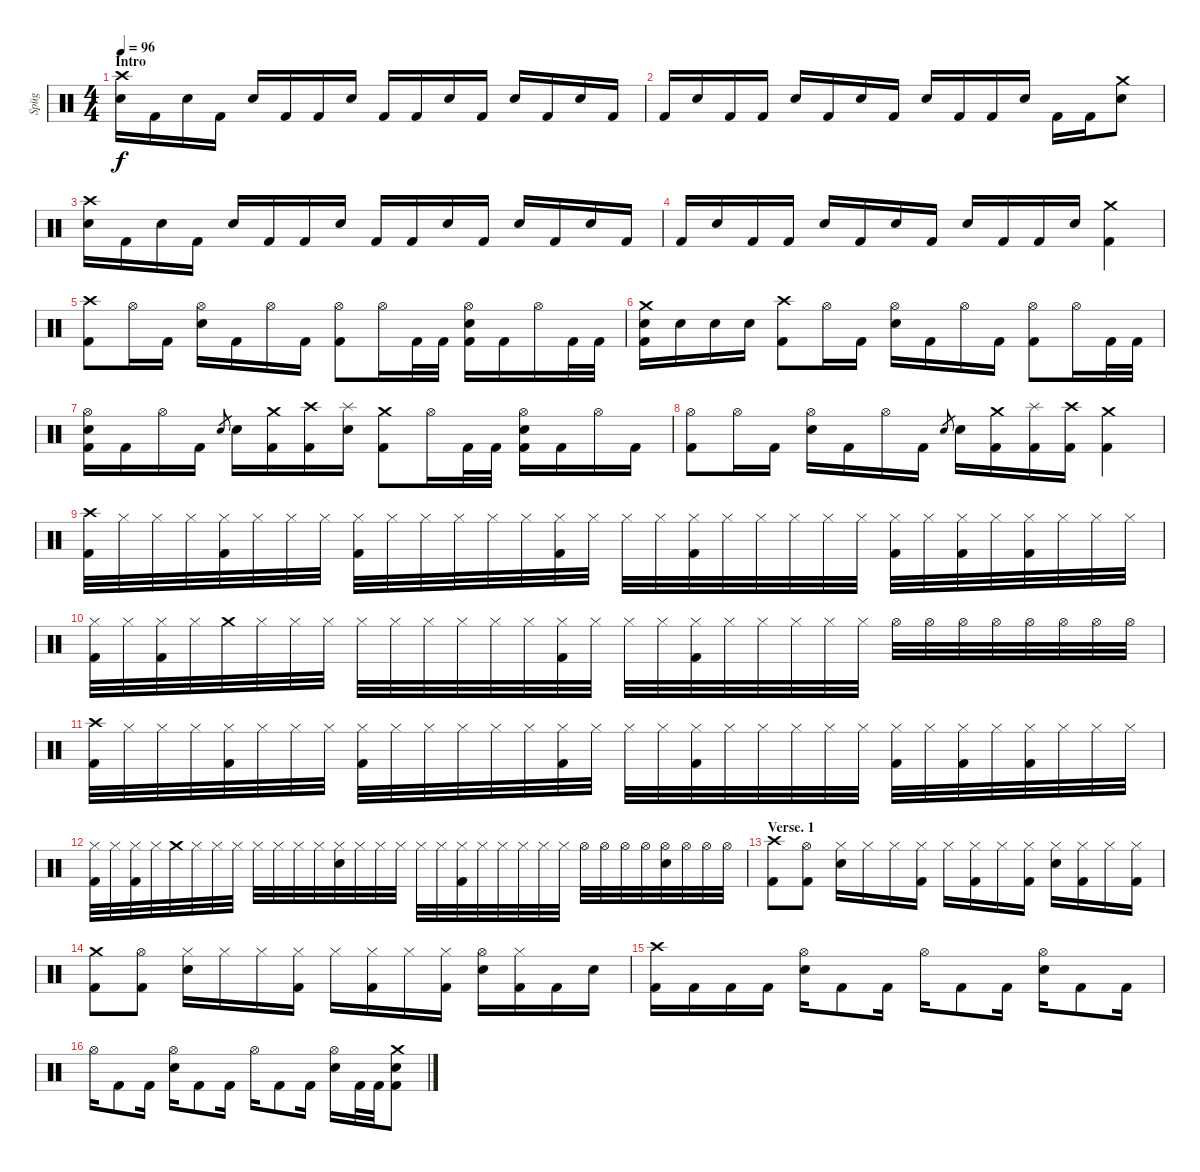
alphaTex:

\track ("Spüg" "Spüg") {instrument percussion}
\staff {score}
\articulation defaults
\ts (4 4)
\section ("" "Intro")
\tempo 96
\clef neutral
\ks c
("Crash high (hit)" "Electric Snare (hit)").16{dy f} "Kick (hit) 2".16 "Electric Snare (hit)".16 "Kick (hit) 2".16 "Electric Snare (hit)".16 "Kick (hit) 2".16 "Kick (hit) 2".16 "Electric Snare (hit)".16 "Kick (hit) 2".16 "Kick (hit) 2".16 "Electric Snare (hit)".16 "Kick (hit) 2".16 "Electric Snare (hit)".16 "Kick (hit) 2".16 "Electric Snare (hit)".16 "Kick (hit) 2".16 |
"Kick (hit) 2".16 "Electric Snare (hit)".16 "Kick (hit) 2".16 "Kick (hit) 2".16 "Electric Snare (hit)".16 "Kick (hit) 2".16 "Electric Snare (hit)".16 "Kick (hit) 2".16 "Electric Snare (hit)".16 "Kick (hit) 2".16 "Kick (hit) 2".16 "Electric Snare (hit)".16 "Kick (hit) 2".16 "Kick (hit) 2".16 ("Crash medium (hit)" "Electric Snare (hit)").8 |
("Crash high (hit)" "Electric Snare (hit)").16 "Kick (hit) 2".16 "Electric Snare (hit)".16 "Kick (hit) 2".16 "Electric Snare (hit)".16 "Kick (hit) 2".16 "Kick (hit) 2".16 "Electric Snare (hit)".16 "Kick (hit) 2".16 "Kick (hit) 2".16 "Electric Snare (hit)".16 "Kick (hit) 2".16 "Electric Snare (hit)".16 "Kick (hit) 2".16 "Electric Snare (hit)".16 "Kick (hit) 2".16 |
"Kick (hit) 2".16 "Electric Snare (hit)".16 "Kick (hit) 2".16 "Kick (hit) 2".16 "Electric Snare (hit)".16 "Kick (hit) 2".16 "Electric Snare (hit)".16 "Kick (hit) 2".16 "Electric Snare (hit)".16 "Kick (hit) 2".16 "Kick (hit) 2".16 "Electric Snare (hit)".16 ("Crash medium (hit)" "Kick (hit) 2").4 |
("Crash high (hit)" "Kick (hit) 2").8 "Hi-Hat (open)".16 "Kick (hit) 2".16 ("Hi-Hat (open)" "Electric Snare (hit)").16 "Kick (hit) 2".16 "Hi-Hat (open)".16 "Kick (hit) 2".16 ("Hi-Hat (open)" "Kick (hit) 2").8 "Hi-Hat (open)".16 "Kick (hit) 2".32 "Kick (hit) 2".32 ("Hi-Hat (open)" "Electric Snare (hit)" "Kick (hit) 2").16 "Kick (hit) 2".16 "Hi-Hat (open)".16 "Kick (hit) 2".32 "Kick (hit) 2".32 |
("Crash medium (hit)" "Electric Snare (hit)" "Kick (hit) 2").16 "Electric Snare (hit)".16 "Electric Snare (hit)".16 "Electric Snare (hit)".16 ("Crash high (hit)" "Kick (hit) 2").8 "Hi-Hat (open)".16 "Kick (hit) 2".16 ("Hi-Hat (open)" "Electric Snare (hit)").16 "Kick (hit) 2".16 "Hi-Hat (open)".16 "Kick (hit) 2".16 ("Hi-Hat (open)" "Kick (hit) 2").8 "Hi-Hat (open)".16 "Kick (hit) 2".32 "Kick (hit) 2".32 |
("Hi-Hat (open)" "Electric Snare (hit)" "Kick (hit) 2").16 "Kick (hit) 2".16 "Hi-Hat (open)".16 "Kick (hit) 2".16 "Electric Snare (hit)".8{gr} "Electric Snare (hit)".16 ("Crash medium (hit)" "Kick (hit) 2").16 ("Crash high (hit)" "Kick (hit) 2").16 ("Splash (hit)" "Electric Snare (hit)").16 ("Crash medium (hit)" "Kick (hit) 2").8 "Hi-Hat (open)".16 "Kick (hit) 2".32 "Kick (hit) 2".32 ("Hi-Hat (open)" "Electric Snare (hit)" "Kick (hit) 2").16 "Kick (hit) 2".16 "Hi-Hat (open)".16 "Kick (hit) 2".16 |
("Hi-Hat (open)" "Kick (hit) 2").8 "Hi-Hat (open)".16 "Kick (hit) 2".16 ("Hi-Hat (open)" "Electric Snare (hit)").16 "Kick (hit) 2".16 "Hi-Hat (open)".16 "Kick (hit) 2".16 "Electric Snare (hit)".8{gr} "Electric Snare (hit)".16 ("Crash medium (hit)" "Kick (hit) 2").16 ("Splash (hit)" "Kick (hit) 2").16 ("Crash high (hit)" "Kick (hit) 2").16 ("Crash medium (hit)" "Kick (hit) 2").4 |
("Crash high (hit)" "Kick (hit) 2").32 "Hi-Hat (closed)".32 "Hi-Hat (closed)".32 "Hi-Hat (closed)".32 ("Hi-Hat (closed)" "Kick (hit) 2").32 "Hi-Hat (closed)".32 "Hi-Hat (closed)".32 "Hi-Hat (closed)".32 ("Hi-Hat (closed)" "Kick (hit) 2").32 "Hi-Hat (closed)".32 "Hi-Hat (closed)".32 "Hi-Hat (closed)".32 "Hi-Hat (closed)".32 "Hi-Hat (closed)".32 ("Hi-Hat (closed)" "Kick (hit) 2").32 "Hi-Hat (closed)".32 "Hi-Hat (closed)".32 "Hi-Hat (closed)".32 ("Hi-Hat (closed)" "Kick (hit) 2").32 "Hi-Hat (closed)".32 "Hi-Hat (closed)".32 "Hi-Hat (closed)".32 "Hi-Hat (closed)".32 "Hi-Hat (closed)".32 ("Hi-Hat (closed)" "Kick (hit) 2").32 "Hi-Hat (closed)".32 ("Hi-Hat (closed)" "Kick (hit) 2").32 "Hi-Hat (closed)".32 ("Hi-Hat (closed)" "Kick (hit) 2").32 "Hi-Hat (closed)".32 "Hi-Hat (closed)".32 "Hi-Hat (closed)".32 |
("Hi-Hat (closed)" "Kick (hit) 2").32 "Hi-Hat (closed)".32 ("Hi-Hat (closed)" "Kick (hit) 2").32 "Hi-Hat (closed)".32 "Crash medium (hit)".32 "Hi-Hat (closed)".32 "Hi-Hat (closed)".32 "Hi-Hat (closed)".32 "Hi-Hat (closed)".32 "Hi-Hat (closed)".32 "Hi-Hat (closed)".32 "Hi-Hat (closed)".32 "Hi-Hat (closed)".32 "Hi-Hat (closed)".32 ("Hi-Hat (closed)" "Kick (hit) 2").32 "Hi-Hat (closed)".32 "Hi-Hat (closed)".32 "Hi-Hat (closed)".32 ("Hi-Hat (closed)" "Kick (hit) 2").32 "Hi-Hat (closed)".32 "Hi-Hat (closed)".32 "Hi-Hat (closed)".32 "Hi-Hat (closed)".32 "Hi-Hat (closed)".32 "Hi-Hat (open)".32 "Hi-Hat (open)".32 "Hi-Hat (open)".32 "Hi-Hat (open)".32 "Hi-Hat (open)".32 "Hi-Hat (open)".32 "Hi-Hat (open)".32 "Hi-Hat (open)".32 |
("Crash high (hit)" "Kick (hit) 2").32 "Hi-Hat (closed)".32 "Hi-Hat (closed)".32 "Hi-Hat (closed)".32 ("Hi-Hat (closed)" "Kick (hit) 2").32 "Hi-Hat (closed)".32 "Hi-Hat (closed)".32 "Hi-Hat (closed)".32 ("Hi-Hat (closed)" "Kick (hit) 2").32 "Hi-Hat (closed)".32 "Hi-Hat (closed)".32 "Hi-Hat (closed)".32 "Hi-Hat (closed)".32 "Hi-Hat (closed)".32 ("Hi-Hat (closed)" "Kick (hit) 2").32 "Hi-Hat (closed)".32 "Hi-Hat (closed)".32 "Hi-Hat (closed)".32 ("Hi-Hat (closed)" "Kick (hit) 2").32 "Hi-Hat (closed)".32 "Hi-Hat (closed)".32 "Hi-Hat (closed)".32 "Hi-Hat (closed)".32 "Hi-Hat (closed)".32 ("Hi-Hat (closed)" "Kick (hit) 2").32 "Hi-Hat (closed)".32 ("Hi-Hat (closed)" "Kick (hit) 2").32 "Hi-Hat (closed)".32 ("Hi-Hat (closed)" "Kick (hit) 2").32 "Hi-Hat (closed)".32 "Hi-Hat (closed)".32 "Hi-Hat (closed)".32 |
("Hi-Hat (closed)" "Kick (hit) 2").32 "Hi-Hat (closed)".32 ("Hi-Hat (closed)" "Kick (hit) 2").32 "Hi-Hat (closed)".32 "Crash medium (hit)".32 "Hi-Hat (closed)".32 "Hi-Hat (closed)".32 "Hi-Hat (closed)".32 "Hi-Hat (closed)".32 "Hi-Hat (closed)".32 "Hi-Hat (closed)".32 "Hi-Hat (closed)".32 ("Hi-Hat (closed)" "Electric Snare (hit)").32 "Hi-Hat (closed)".32 "Hi-Hat (closed)".32 "Hi-Hat (closed)".32 "Hi-Hat (closed)".32 "Hi-Hat (closed)".32 ("Hi-Hat (closed)" "Kick (hit) 2").32 "Hi-Hat (closed)".32 "Hi-Hat (closed)".32 "Hi-Hat (closed)".32 "Hi-Hat (closed)".32 "Hi-Hat (closed)".32 "Hi-Hat (open)".32 "Hi-Hat (open)".32 "Hi-Hat (open)".32 "Hi-Hat (open)".32 ("Hi-Hat (open)" "Electric Snare (hit)").32 "Hi-Hat (open)".32 "Hi-Hat (open)".32 "Hi-Hat (open)".32 |
\section ("" "Verse. 1")
("Crash high (hit)" "Kick (hit) 2").8 ("Hi-Hat (open)" "Kick (hit) 2").8 ("Hi-Hat (closed)" "Electric Snare (hit)").16 "Hi-Hat (closed)".16 "Hi-Hat (closed)".16 ("Hi-Hat (closed)" "Kick (hit) 2").16 "Hi-Hat (closed)".16 ("Hi-Hat (closed)" "Kick (hit) 2").16 "Hi-Hat (closed)".16 ("Hi-Hat (closed)" "Kick (hit) 2").16 ("Hi-Hat (closed)" "Electric Snare (hit)").16 ("Hi-Hat (closed)" "Kick (hit) 2").16 "Hi-Hat (closed)".16 ("Hi-Hat (closed)" "Kick (hit) 2").16 |
("Crash medium (hit)" "Kick (hit) 2").8 ("Hi-Hat (open)" "Kick (hit) 2").8 ("Hi-Hat (closed)" "Electric Snare (hit)").16 "Hi-Hat (closed)".16 "Hi-Hat (closed)".16 ("Hi-Hat (closed)" "Kick (hit) 2").16 "Hi-Hat (closed)".16 ("Hi-Hat (closed)" "Kick (hit) 2").16 "Hi-Hat (closed)".16 ("Hi-Hat (closed)" "Kick (hit) 2").16 ("Hi-Hat (open)" "Electric Snare (hit)").16 ("Hi-Hat (closed)" "Kick (hit) 2").16 "Kick (hit) 2".16 "Electric Snare (hit)".16 |
("Crash high (hit)" "Kick (hit) 2").16 "Kick (hit) 2".16 "Kick (hit) 2".16 "Kick (hit) 2".16 ("Hi-Hat (open)" "Electric Snare (hit)").16 "Kick (hit) 2".8 "Kick (hit) 2".16 "Hi-Hat (open)".16 "Kick (hit) 2".8 "Kick (hit) 2".16 ("Hi-Hat (open)" "Electric Snare (hit)").16 "Kick (hit) 2".8 "Kick (hit) 2".16 |
"Hi-Hat (open)".16 "Kick (hit) 2".8 "Kick (hit) 2".16 ("Hi-Hat (open)" "Electric Snare (hit)").16 "Kick (hit) 2".8 "Kick (hit) 2".16 "Hi-Hat (open)".16 "Kick (hit) 2".8 "Kick (hit) 2".16 ("Hi-Hat (open)" "Electric Snare (hit)").16 "Kick (hit) 2".32 "Kick (hit) 2".32 ("Crash medium (hit)" "Electric Snare (hit)" "Kick (hit) 2").8
